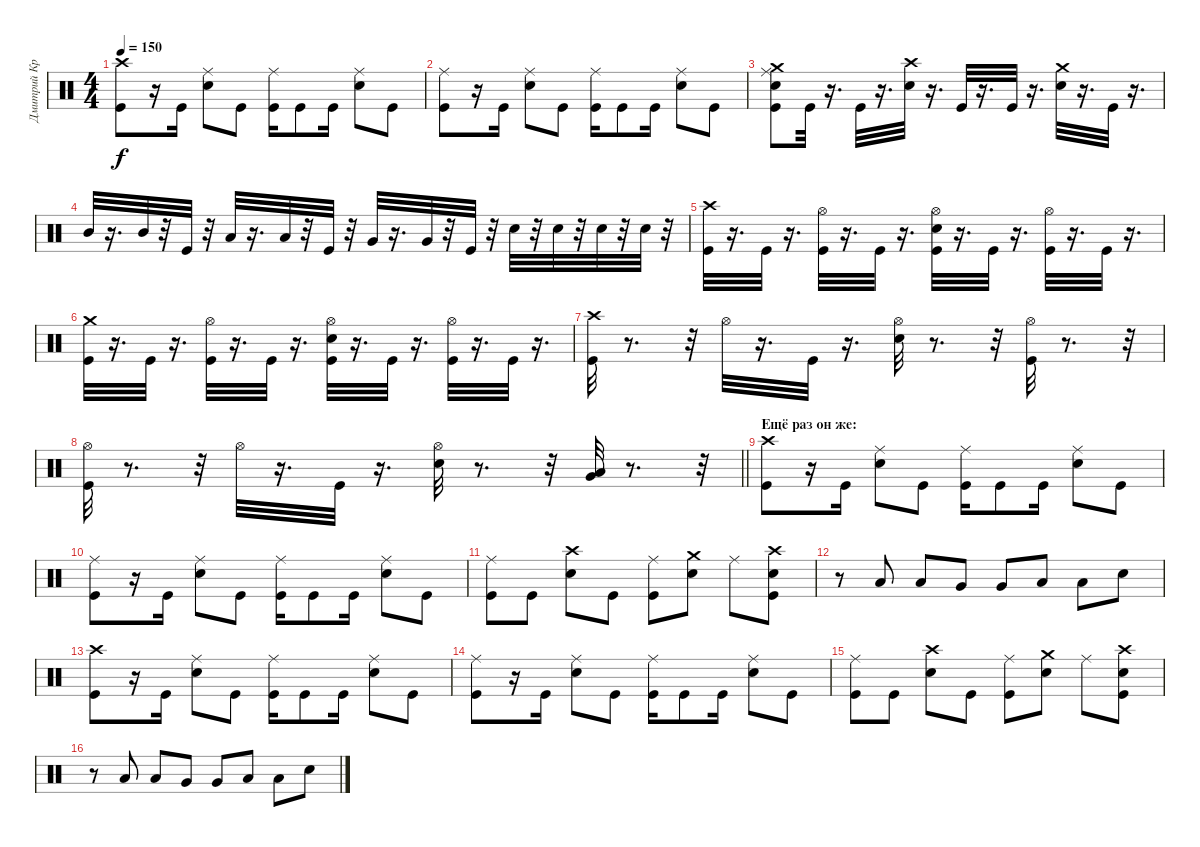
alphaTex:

\track ("Дмитрий Кривенков" "Дмитрий Кр") {instrument percussion}
\staff {score}
\articulation defaults
\ts (4 4)
\tempo 150
\clef neutral
\ks c
("Crash high (hit)" "Kick (hit)").8{dy f} r.16 "Kick (hit)".16 ("Ride (middle)" "Electric Snare (hit)").8 "Kick (hit)".8 ("Ride (middle)" "Kick (hit)").16 "Kick (hit)".8 "Kick (hit)".16 ("Ride (middle)" "Electric Snare (hit)").8 "Kick (hit)".8 |
("Kick (hit)" "Ride (middle)").8 r.16 "Kick (hit)".16 ("Ride (middle)" "Electric Snare (hit)").8 "Kick (hit)".8 ("Ride (middle)" "Kick (hit)").16 "Kick (hit)".8 "Kick (hit)".16 ("Ride (middle)" "Electric Snare (hit)").8 "Kick (hit)".8 |
("Crash medium (hit)" "Electric Snare (hit)" "Ride (middle)" "Kick (hit)").8 "Kick (hit)".32 r.16{d} "Kick (hit)".32 r.16{d} ("Crash high (hit)" "Electric Snare (hit)").32 r.16{d} "Kick (hit)".32 r.16{d} "Kick (hit)".32 r.16{d} ("Crash medium (hit)" "Electric Snare (hit)").32 r.16{d} "Kick (hit)".32 r.16{d} |
"Mid Tom (hit)".32 r.16{d} "Mid Tom (hit)".32 r.32 "Kick (hit)".32 r.32 "Low Tom (hit)".32 r.16{d} "Low Tom (hit)".32 r.32 "Kick (hit)".32 r.32 "Very Low Tom (hit)".32 r.16{d} "Very Low Tom (hit)".32 r.32 "Kick (hit)".32 r.32 "Electric Snare (hit)".32 r.32 "Electric Snare (hit)".32 r.32 "Electric Snare (hit)".32 r.32 "Electric Snare (hit)".32 r.32 |
("Crash high (hit)" "Kick (hit)").32 r.16{d} "Kick (hit)".32 r.16{d} ("Hi-Hat (open)" "Kick (hit)").32 r.16{d} "Kick (hit)".32 r.16{d} ("Kick (hit)" "Hi-Hat (open)" "Electric Snare (hit)").32 r.16{d} "Kick (hit)".32 r.16{d} ("Hi-Hat (open)" "Kick (hit)").32 r.16{d} "Kick (hit)".32 r.16{d} |
("Crash medium (hit)" "Kick (hit)").32 r.16{d} "Kick (hit)".32 r.16{d} ("Hi-Hat (open)" "Kick (hit)").32 r.16{d} "Kick (hit)".32 r.16{d} ("Hi-Hat (open)" "Kick (hit)" "Electric Snare (hit)").32 r.16{d} "Kick (hit)".32 r.16{d} ("Kick (hit)" "Hi-Hat (open)").32 r.16{d} "Kick (hit)".32 r.16{d} |
("Crash high (hit)" "Kick (hit)").32 r.8{d} r.32 "Hi-Hat (open)".32 r.16{d} "Kick (hit)".32 r.16{d} ("Hi-Hat (open)" "Electric Snare (hit)").32 r.8{d} r.32 ("Hi-Hat (open)" "Kick (hit)").32 r.8{d} r.32 |
\barLineRight lightlight
("Hi-Hat (open)" "Kick (hit)").32 r.8{d} r.32 "Hi-Hat (open)".32 r.16{d} "Kick (hit)".32 r.16{d} ("Hi-Hat (open)" "Electric Snare (hit)").32 r.8{d} r.32 ("Very Low Tom (hit)" "Low Tom (hit)").32 r.8{d} r.32 |
\section ("" "Ещё раз он же:")
("Crash high (hit)" "Kick (hit)").8 r.16 "Kick (hit)".16 ("Ride (middle)" "Electric Snare (hit)").8 "Kick (hit)".8 ("Ride (middle)" "Kick (hit)").16 "Kick (hit)".8 "Kick (hit)".16 ("Ride (middle)" "Electric Snare (hit)").8 "Kick (hit)".8 |
("Kick (hit)" "Ride (middle)").8 r.16 "Kick (hit)".16 ("Ride (middle)" "Electric Snare (hit)").8 "Kick (hit)".8 ("Ride (middle)" "Kick (hit)").16 "Kick (hit)".8 "Kick (hit)".16 ("Ride (middle)" "Electric Snare (hit)").8 "Kick (hit)".8 |
("Ride (middle)" "Kick (hit)").8 "Kick (hit)".8 ("Crash high (hit)" "Electric Snare (hit)").8 "Kick (hit)".8 ("Ride (middle)" "Kick (hit)").8 ("Electric Snare (hit)" "Crash medium (hit)").8 "Ride (middle)".8 ("Crash high (hit)" "Electric Snare (hit)" "Kick (hit)").8 |
r.8 "Low Tom (hit)".8 "Low Tom (hit)".8 "Very Low Tom (hit)".8 "Very Low Tom (hit)".8 "Low Floor Tom (hit)".8 "Low Floor Tom (hit)".8 "Electric Snare (hit)".8 |
("Crash high (hit)" "Kick (hit)").8 r.16 "Kick (hit)".16 ("Ride (middle)" "Electric Snare (hit)").8 "Kick (hit)".8 ("Ride (middle)" "Kick (hit)").16 "Kick (hit)".8 "Kick (hit)".16 ("Ride (middle)" "Electric Snare (hit)").8 "Kick (hit)".8 |
("Kick (hit)" "Ride (middle)").8 r.16 "Kick (hit)".16 ("Ride (middle)" "Electric Snare (hit)").8 "Kick (hit)".8 ("Ride (middle)" "Kick (hit)").16 "Kick (hit)".8 "Kick (hit)".16 ("Ride (middle)" "Electric Snare (hit)").8 "Kick (hit)".8 |
("Ride (middle)" "Kick (hit)").8 "Kick (hit)".8 ("Crash high (hit)" "Electric Snare (hit)").8 "Kick (hit)".8 ("Ride (middle)" "Kick (hit)").8 ("Electric Snare (hit)" "Crash medium (hit)").8 "Ride (middle)".8 ("Crash high (hit)" "Electric Snare (hit)" "Kick (hit)").8 |
r.8 "Low Tom (hit)".8 "Low Tom (hit)".8 "Very Low Tom (hit)".8 "Very Low Tom (hit)".8 "Low Floor Tom (hit)".8 "Low Floor Tom (hit)".8 "Electric Snare (hit)".8
